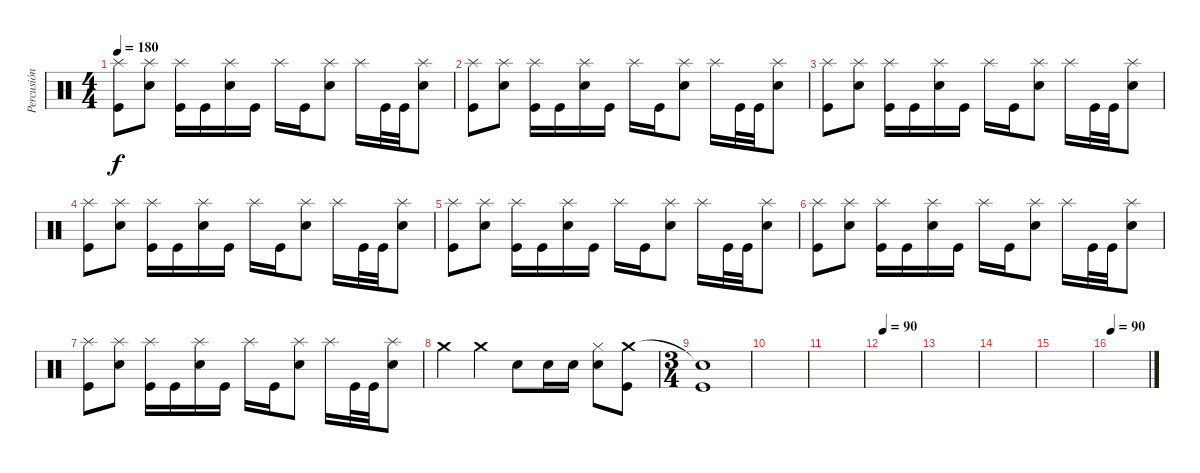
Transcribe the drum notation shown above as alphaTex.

\track ("Percusión" "Percusión") {instrument percussion}
\staff {score}
\articulation defaults
\ts (4 4)
\tempo 180
\clef neutral
\ks c
("Splash (hit)" "Kick (hit)").8{dy f} ("Splash (hit)" "Electric Snare (hit)").8 ("Splash (hit)" "Kick (hit)").16 "Kick (hit)".16 ("Splash (hit)" "Electric Snare (hit)").16 "Kick (hit)".16 "Splash (hit)".16 "Kick (hit)".16 ("Splash (hit)" "Electric Snare (hit)").8 "Splash (hit)".16 "Kick (hit)".32 "Kick (hit)".32 ("Splash (hit)" "Electric Snare (hit)").8 |
("Splash (hit)" "Kick (hit)").8 ("Splash (hit)" "Electric Snare (hit)").8 ("Splash (hit)" "Kick (hit)").16 "Kick (hit)".16 ("Splash (hit)" "Electric Snare (hit)").16 "Kick (hit)".16 "Splash (hit)".16 "Kick (hit)".16 ("Splash (hit)" "Electric Snare (hit)").8 "Splash (hit)".16 "Kick (hit)".32 "Kick (hit)".32 ("Splash (hit)" "Electric Snare (hit)").8 |
("Splash (hit)" "Kick (hit)").8 ("Splash (hit)" "Electric Snare (hit)").8 ("Splash (hit)" "Kick (hit)").16 "Kick (hit)".16 ("Splash (hit)" "Electric Snare (hit)").16 "Kick (hit)".16 "Splash (hit)".16 "Kick (hit)".16 ("Splash (hit)" "Electric Snare (hit)").8 "Splash (hit)".16 "Kick (hit)".32 "Kick (hit)".32 ("Splash (hit)" "Electric Snare (hit)").8 |
("Splash (hit)" "Kick (hit)").8 ("Splash (hit)" "Electric Snare (hit)").8 ("Splash (hit)" "Kick (hit)").16 "Kick (hit)".16 ("Splash (hit)" "Electric Snare (hit)").16 "Kick (hit)".16 "Splash (hit)".16 "Kick (hit)".16 ("Splash (hit)" "Electric Snare (hit)").8 "Splash (hit)".16 "Kick (hit)".32 "Kick (hit)".32 ("Splash (hit)" "Electric Snare (hit)").8 |
("Splash (hit)" "Kick (hit)").8 ("Splash (hit)" "Electric Snare (hit)").8 ("Splash (hit)" "Kick (hit)").16 "Kick (hit)".16 ("Splash (hit)" "Electric Snare (hit)").16 "Kick (hit)".16 "Splash (hit)".16 "Kick (hit)".16 ("Splash (hit)" "Electric Snare (hit)").8 "Splash (hit)".16 "Kick (hit)".32 "Kick (hit)".32 ("Splash (hit)" "Electric Snare (hit)").8 |
("Splash (hit)" "Kick (hit)").8 ("Splash (hit)" "Electric Snare (hit)").8 ("Splash (hit)" "Kick (hit)").16 "Kick (hit)".16 ("Splash (hit)" "Electric Snare (hit)").16 "Kick (hit)".16 "Splash (hit)".16 "Kick (hit)".16 ("Splash (hit)" "Electric Snare (hit)").8 "Splash (hit)".16 "Kick (hit)".32 "Kick (hit)".32 ("Splash (hit)" "Electric Snare (hit)").8 |
("Splash (hit)" "Kick (hit)").8 ("Splash (hit)" "Electric Snare (hit)").8 ("Splash (hit)" "Kick (hit)").16 "Kick (hit)".16 ("Splash (hit)" "Electric Snare (hit)").16 "Kick (hit)".16 "Splash (hit)".16 "Kick (hit)".16 ("Splash (hit)" "Electric Snare (hit)").8 "Splash (hit)".16 "Kick (hit)".32 "Kick (hit)".32 ("Splash (hit)" "Electric Snare (hit)").8 |
"Crash medium (hit)".4 "Crash medium (hit)".4 "Snare (hit) 2".8 "Snare (hit) 2".16 "Snare (hit) 2".16 ("Snare (hit) 2" "Hi-Hat (closed)").8 ("Kick (hit)" "Crash medium (hit)").8 |
\ts (3 4)
("Kick (hit)" "Snare (hit)"{t}).1 |
|
|
\tempo 90
|
|
|
|
\tempo 90
